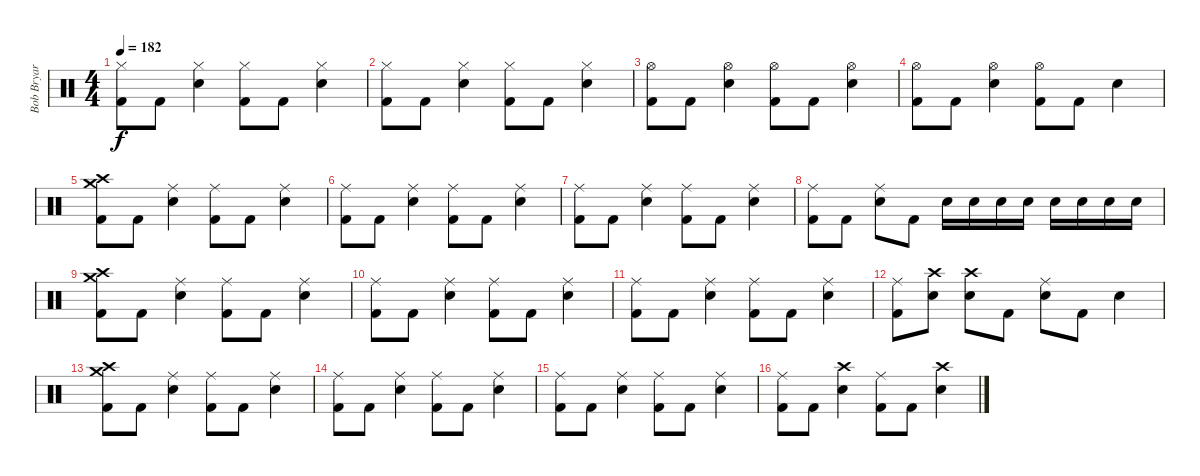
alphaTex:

\track ("Bob Bryar" "Bob Bryar") {instrument percussion}
\staff {score}
\articulation defaults
\ts (4 4)
\tempo 182
\clef neutral
\ks c
("Kick (hit) 2" "Hi-Hat (closed)").8{dy f} "Kick (hit) 2".8 ("Snare (hit) 2" "Hi-Hat (closed)").4 ("Kick (hit) 2" "Hi-Hat (closed)").8 "Kick (hit) 2".8 ("Snare (hit) 2" "Hi-Hat (closed)").4 |
("Kick (hit) 2" "Hi-Hat (closed)").8 "Kick (hit) 2".8 ("Snare (hit) 2" "Hi-Hat (closed)").4 ("Kick (hit) 2" "Hi-Hat (closed)").8 "Kick (hit) 2".8 ("Snare (hit) 2" "Hi-Hat (closed)").4 |
("Kick (hit) 2" "Hi-Hat (open)").8 "Kick (hit) 2".8 ("Snare (hit) 2" "Hi-Hat (open)").4 ("Kick (hit) 2" "Hi-Hat (open)").8 "Kick (hit) 2".8 ("Snare (hit) 2" "Hi-Hat (open)").4 |
("Kick (hit) 2" "Hi-Hat (open)").8 "Kick (hit) 2".8 ("Snare (hit) 2" "Hi-Hat (open)").4 ("Kick (hit) 2" "Hi-Hat (open)").8 "Kick (hit) 2".8 "Snare (hit) 2".4 |
("Kick (hit) 2" "Crash high (hit)" "Crash medium (hit)").8 "Kick (hit) 2".8 ("Snare (hit) 2" "Ride (middle)").4 ("Kick (hit) 2" "Ride (middle)").8 "Kick (hit) 2".8 ("Snare (hit) 2" "Ride (middle)").4 |
("Kick (hit) 2" "Ride (middle)").8 "Kick (hit) 2".8 ("Snare (hit) 2" "Ride (middle)").4 ("Kick (hit) 2" "Ride (middle)").8 "Kick (hit) 2".8 ("Snare (hit) 2" "Ride (middle)").4 |
("Kick (hit) 2" "Ride (middle)").8 "Kick (hit) 2".8 ("Snare (hit) 2" "Ride (middle)").4 ("Kick (hit) 2" "Ride (middle)").8 "Kick (hit) 2".8 ("Snare (hit) 2" "Ride (middle)").4 |
("Kick (hit) 2" "Ride (middle)").8 "Kick (hit) 2".8 ("Snare (hit) 2" "Ride (middle)").8 "Kick (hit) 2".8 "Snare (hit) 2".16 "Snare (hit) 2".16 "Snare (hit) 2".16 "Snare (hit) 2".16 "Snare (hit) 2".16 "Snare (hit) 2".16 "Snare (hit) 2".16 "Snare (hit) 2".16 |
("Kick (hit) 2" "Crash high (hit)" "Crash medium (hit)").8 "Kick (hit) 2".8 ("Snare (hit) 2" "Ride (middle)").4 ("Kick (hit) 2" "Ride (middle)").8 "Kick (hit) 2".8 ("Snare (hit) 2" "Ride (middle)").4 |
("Kick (hit) 2" "Ride (middle)").8 "Kick (hit) 2".8 ("Snare (hit) 2" "Ride (middle)").4 ("Kick (hit) 2" "Ride (middle)").8 "Kick (hit) 2".8 ("Snare (hit) 2" "Ride (middle)").4 |
("Kick (hit) 2" "Ride (middle)").8 "Kick (hit) 2".8 ("Snare (hit) 2" "Ride (middle)").4 ("Kick (hit) 2" "Ride (middle)").8 "Kick (hit) 2".8 ("Snare (hit) 2" "Ride (middle)").4 |
("Kick (hit) 2" "Ride (middle)").8 ("Snare (hit) 2" "Crash high (hit)").8 ("Snare (hit) 2" "Crash high (hit)").8 "Kick (hit) 2".8 ("Snare (hit) 2" "Ride (middle)").8 "Kick (hit) 2".8 "Snare (hit) 2".4 |
("Kick (hit) 2" "Crash high (hit)" "Crash medium (hit)").8 "Kick (hit) 2".8 ("Snare (hit) 2" "Ride (middle)").4 ("Kick (hit) 2" "Ride (middle)").8 "Kick (hit) 2".8 ("Snare (hit) 2" "Ride (middle)").4 |
("Kick (hit) 2" "Ride (middle)").8 "Kick (hit) 2".8 ("Snare (hit) 2" "Ride (middle)").4 ("Kick (hit) 2" "Ride (middle)").8 "Kick (hit) 2".8 ("Snare (hit) 2" "Ride (middle)").4 |
("Kick (hit) 2" "Ride (middle)").8 "Kick (hit) 2".8 ("Snare (hit) 2" "Ride (middle)").4 ("Kick (hit) 2" "Ride (middle)").8 "Kick (hit) 2".8 ("Snare (hit) 2" "Ride (middle)").4 |
("Kick (hit) 2" "Ride (middle)").8 "Kick (hit) 2".8 ("Snare (hit) 2" "Crash high (hit)").4 ("Kick (hit) 2" "Ride (middle)").8 "Kick (hit) 2".8 ("Snare (hit) 2" "Crash high (hit)").4
